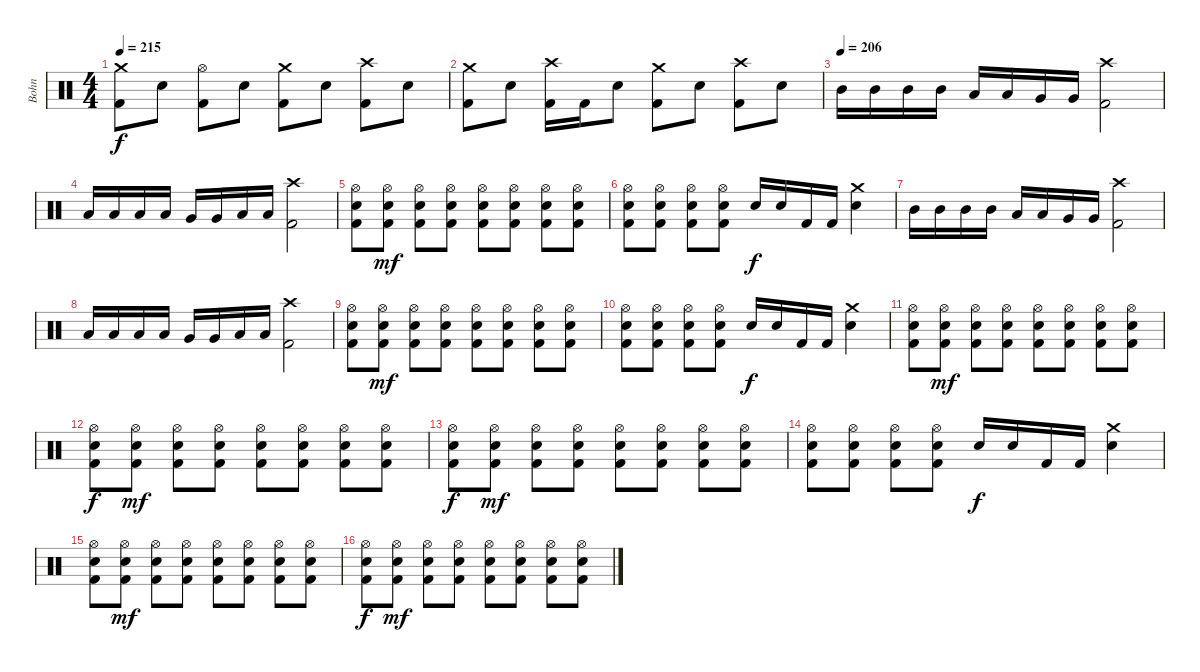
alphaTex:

\track ("Bohn" "Bohn") {instrument percussion}
\staff {score}
\articulation defaults
\ts (4 4)
\tempo 215
\clef neutral
\ks c
("Crash medium (hit)" "Kick (hit) 2").8{dy f} "Electric Snare (hit)".8 ("Hi-Hat (open)" "Kick (hit) 2").8 "Electric Snare (hit)".8 ("Crash medium (hit)" "Kick (hit) 2").8 "Electric Snare (hit)".8 ("Crash high (hit)" "Kick (hit) 2").8 "Electric Snare (hit)".8 |
("Crash medium (hit)" "Kick (hit) 2").8 "Electric Snare (hit)".8 ("Crash high (hit)" "Kick (hit) 2").16 "Kick (hit) 2".16 "Electric Snare (hit)".8 ("Crash medium (hit)" "Kick (hit) 2").8 "Electric Snare (hit)".8 ("Crash high (hit)" "Kick (hit) 2").8 "Electric Snare (hit)".8 |
\tempo (206)
"Mid Tom (hit)".16 "Mid Tom (hit)".16 "Mid Tom (hit)".16 "Mid Tom (hit)".16 "Low Tom (hit)".16 "Low Tom (hit)".16 "Very Low Tom (hit)".16 "Very Low Tom (hit)".16 ("Crash high (hit)" "Kick (hit) 2").2 |
"Low Tom (hit)".16 "Low Tom (hit)".16 "Low Tom (hit)".16 "Low Tom (hit)".16 "Very Low Tom (hit)".16 "Very Low Tom (hit)".16 "Low Floor Tom (hit)".16 "Low Floor Tom (hit)".16 ("Crash high (hit)" "Kick (hit) 2").2 |
("Hi-Hat (open)" "Electric Snare (hit)" "Kick (hit) 2").8 ("Hi-Hat (open)" "Electric Snare (hit)" "Kick (hit) 2").8{dy mf} ("Hi-Hat (open)" "Electric Snare (hit)" "Kick (hit) 2").8 ("Hi-Hat (open)" "Electric Snare (hit)" "Kick (hit) 2").8 ("Hi-Hat (open)" "Electric Snare (hit)" "Kick (hit) 2").8 ("Hi-Hat (open)" "Electric Snare (hit)" "Kick (hit) 2").8 ("Hi-Hat (open)" "Electric Snare (hit)" "Kick (hit) 2").8 ("Hi-Hat (open)" "Electric Snare (hit)" "Kick (hit) 2").8 |
("Hi-Hat (open)" "Electric Snare (hit)" "Kick (hit) 2").8 ("Hi-Hat (open)" "Electric Snare (hit)" "Kick (hit) 2").8 ("Hi-Hat (open)" "Electric Snare (hit)" "Kick (hit) 2").8 ("Hi-Hat (open)" "Electric Snare (hit)" "Kick (hit) 2").8 "Electric Snare (hit)".16{dy f} "Electric Snare (hit)".16 "Kick (hit) 2".16 "Kick (hit) 2".16 ("Crash medium (hit)" "Electric Snare (hit)").4 |
"Mid Tom (hit)".16 "Mid Tom (hit)".16 "Mid Tom (hit)".16 "Mid Tom (hit)".16 "Low Tom (hit)".16 "Low Tom (hit)".16 "Very Low Tom (hit)".16 "Very Low Tom (hit)".16 ("Crash high (hit)" "Kick (hit) 2").2 |
"Low Tom (hit)".16 "Low Tom (hit)".16 "Low Tom (hit)".16 "Low Tom (hit)".16 "Very Low Tom (hit)".16 "Very Low Tom (hit)".16 "Low Floor Tom (hit)".16 "Low Floor Tom (hit)".16 ("Crash high (hit)" "Kick (hit) 2").2 |
("Hi-Hat (open)" "Electric Snare (hit)" "Kick (hit) 2").8 ("Hi-Hat (open)" "Electric Snare (hit)" "Kick (hit) 2").8{dy mf} ("Hi-Hat (open)" "Electric Snare (hit)" "Kick (hit) 2").8 ("Hi-Hat (open)" "Electric Snare (hit)" "Kick (hit) 2").8 ("Hi-Hat (open)" "Electric Snare (hit)" "Kick (hit) 2").8 ("Hi-Hat (open)" "Electric Snare (hit)" "Kick (hit) 2").8 ("Hi-Hat (open)" "Electric Snare (hit)" "Kick (hit) 2").8 ("Hi-Hat (open)" "Electric Snare (hit)" "Kick (hit) 2").8 |
("Hi-Hat (open)" "Electric Snare (hit)" "Kick (hit) 2").8 ("Hi-Hat (open)" "Electric Snare (hit)" "Kick (hit) 2").8 ("Hi-Hat (open)" "Electric Snare (hit)" "Kick (hit) 2").8 ("Hi-Hat (open)" "Electric Snare (hit)" "Kick (hit) 2").8 "Electric Snare (hit)".16{dy f} "Electric Snare (hit)".16 "Kick (hit) 2".16 "Kick (hit) 2".16 ("Crash medium (hit)" "Electric Snare (hit)").4 |
("Hi-Hat (open)" "Electric Snare (hit)" "Kick (hit) 2").8 ("Hi-Hat (open)" "Electric Snare (hit)" "Kick (hit) 2").8{dy mf} ("Hi-Hat (open)" "Electric Snare (hit)" "Kick (hit) 2").8 ("Hi-Hat (open)" "Electric Snare (hit)" "Kick (hit) 2").8 ("Hi-Hat (open)" "Electric Snare (hit)" "Kick (hit) 2").8 ("Hi-Hat (open)" "Electric Snare (hit)" "Kick (hit) 2").8 ("Hi-Hat (open)" "Electric Snare (hit)" "Kick (hit) 2").8 ("Hi-Hat (open)" "Electric Snare (hit)" "Kick (hit) 2").8 |
("Hi-Hat (open)" "Electric Snare (hit)" "Kick (hit) 2").8{dy f} ("Hi-Hat (open)" "Electric Snare (hit)" "Kick (hit) 2").8{dy mf} ("Hi-Hat (open)" "Electric Snare (hit)" "Kick (hit) 2").8 ("Hi-Hat (open)" "Electric Snare (hit)" "Kick (hit) 2").8 ("Hi-Hat (open)" "Electric Snare (hit)" "Kick (hit) 2").8 ("Hi-Hat (open)" "Electric Snare (hit)" "Kick (hit) 2").8 ("Hi-Hat (open)" "Electric Snare (hit)" "Kick (hit) 2").8 ("Hi-Hat (open)" "Electric Snare (hit)" "Kick (hit) 2").8 |
("Hi-Hat (open)" "Electric Snare (hit)" "Kick (hit) 2").8{dy f} ("Hi-Hat (open)" "Electric Snare (hit)" "Kick (hit) 2").8{dy mf} ("Hi-Hat (open)" "Electric Snare (hit)" "Kick (hit) 2").8 ("Hi-Hat (open)" "Electric Snare (hit)" "Kick (hit) 2").8 ("Hi-Hat (open)" "Electric Snare (hit)" "Kick (hit) 2").8 ("Hi-Hat (open)" "Electric Snare (hit)" "Kick (hit) 2").8 ("Hi-Hat (open)" "Electric Snare (hit)" "Kick (hit) 2").8 ("Hi-Hat (open)" "Electric Snare (hit)" "Kick (hit) 2").8 |
("Hi-Hat (open)" "Electric Snare (hit)" "Kick (hit) 2").8 ("Hi-Hat (open)" "Electric Snare (hit)" "Kick (hit) 2").8 ("Hi-Hat (open)" "Electric Snare (hit)" "Kick (hit) 2").8 ("Hi-Hat (open)" "Electric Snare (hit)" "Kick (hit) 2").8 "Electric Snare (hit)".16{dy f} "Electric Snare (hit)".16 "Kick (hit) 2".16 "Kick (hit) 2".16 ("Crash medium (hit)" "Electric Snare (hit)").4 |
("Hi-Hat (open)" "Electric Snare (hit)" "Kick (hit) 2").8 ("Hi-Hat (open)" "Electric Snare (hit)" "Kick (hit) 2").8{dy mf} ("Hi-Hat (open)" "Electric Snare (hit)" "Kick (hit) 2").8 ("Hi-Hat (open)" "Electric Snare (hit)" "Kick (hit) 2").8 ("Hi-Hat (open)" "Electric Snare (hit)" "Kick (hit) 2").8 ("Hi-Hat (open)" "Electric Snare (hit)" "Kick (hit) 2").8 ("Hi-Hat (open)" "Electric Snare (hit)" "Kick (hit) 2").8 ("Hi-Hat (open)" "Electric Snare (hit)" "Kick (hit) 2").8 |
("Hi-Hat (open)" "Electric Snare (hit)" "Kick (hit) 2").8{dy f} ("Hi-Hat (open)" "Electric Snare (hit)" "Kick (hit) 2").8{dy mf} ("Hi-Hat (open)" "Electric Snare (hit)" "Kick (hit) 2").8 ("Hi-Hat (open)" "Electric Snare (hit)" "Kick (hit) 2").8 ("Hi-Hat (open)" "Electric Snare (hit)" "Kick (hit) 2").8 ("Hi-Hat (open)" "Electric Snare (hit)" "Kick (hit) 2").8 ("Hi-Hat (open)" "Electric Snare (hit)" "Kick (hit) 2").8 ("Hi-Hat (open)" "Electric Snare (hit)" "Kick (hit) 2").8
